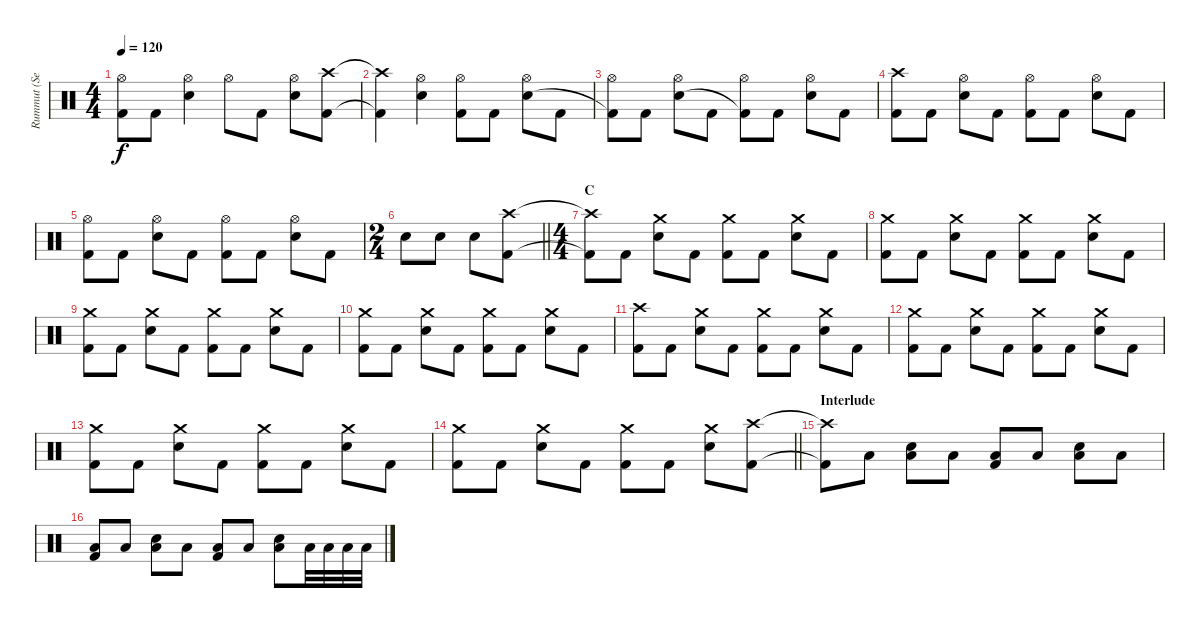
\track ("Rummut (Seppo Pohjolainen)" "Rummut (Se") {instrument percussion}
\staff {score}
\articulation defaults
\ts (4 4)
\tempo 120
\clef neutral
\ks c
("Hi-Hat (open)" "Kick (hit) 2"{t}).8{dy f} "Kick (hit) 2".8 ("Hi-Hat (open)" "Electric Snare (hit)").4 "Hi-Hat (open)".8 "Kick (hit) 2".8 ("Hi-Hat (open)" "Electric Snare (hit)").8 ("Crash high (hit)" "Kick (hit) 2").8 |
("Crash high (hit)"{t} "Kick (hit) 2"{t}).4 ("Hi-Hat (open)" "Electric Snare (hit)").4 ("Hi-Hat (open)" "Kick (hit) 2").8 "Kick (hit) 2".8 ("Hi-Hat (open)" "Electric Snare (hit)").8 "Kick (hit) 2".8 |
("Hi-Hat (open)" "Kick (hit) 2"{t}).8 "Kick (hit) 2".8 ("Hi-Hat (open)" "Electric Snare (hit)").8 "Kick (hit) 2".8 ("Hi-Hat (open)" "Kick (hit) 2"{t}).8 "Kick (hit) 2".8 ("Hi-Hat (open)" "Electric Snare (hit)").8 "Kick (hit) 2".8 |
("Crash high (hit)" "Kick (hit) 2").8 "Kick (hit) 2".8 ("Hi-Hat (open)" "Electric Snare (hit)").8 "Kick (hit) 2".8 ("Hi-Hat (open)" "Kick (hit) 2").8 "Kick (hit) 2".8 ("Hi-Hat (open)" "Electric Snare (hit)").8 "Kick (hit) 2".8 |
("Hi-Hat (open)" "Kick (hit) 2").8 "Kick (hit) 2".8 ("Hi-Hat (open)" "Electric Snare (hit)").8 "Kick (hit) 2".8 ("Hi-Hat (open)" "Kick (hit) 2").8 "Kick (hit) 2".8 ("Hi-Hat (open)" "Electric Snare (hit)").8 "Kick (hit) 2".8 |
\ts (2 4)
\barLineRight lightlight "Electric Snare (hit)".8 "Electric Snare (hit)".8 "Electric Snare (hit)".8
("Crash high (hit)" "Kick (hit) 2").8 |
\ts (4 4)
\section ("" "C")
("Crash high (hit)"{t} "Kick (hit) 2"{t}).8 "Kick (hit) 2".8 ("Crash medium (hit)" "Electric Snare (hit)").8 "Kick (hit) 2".8 ("Crash medium (hit)" "Kick (hit) 2").8 "Kick (hit) 2".8 ("Crash medium (hit)" "Electric Snare (hit)").8 "Kick (hit) 2".8 |
("Crash medium (hit)" "Kick (hit) 2").8 "Kick (hit) 2".8 ("Crash medium (hit)" "Electric Snare (hit)").8 "Kick (hit) 2".8 ("Crash medium (hit)" "Kick (hit) 2").8 "Kick (hit) 2".8 ("Crash medium (hit)" "Electric Snare (hit)").8 "Kick (hit) 2".8 |
("Crash medium (hit)" "Kick (hit) 2").8 "Kick (hit) 2".8 ("Crash medium (hit)" "Electric Snare (hit)").8 "Kick (hit) 2".8 ("Crash medium (hit)" "Kick (hit) 2").8 "Kick (hit) 2".8 ("Crash medium (hit)" "Electric Snare (hit)").8 "Kick (hit) 2".8 |
("Crash medium (hit)" "Kick (hit) 2").8 "Kick (hit) 2".8 ("Crash medium (hit)" "Electric Snare (hit)").8 "Kick (hit) 2".8 ("Crash medium (hit)" "Kick (hit) 2").8 "Kick (hit) 2".8 ("Crash medium (hit)" "Electric Snare (hit)").8 "Kick (hit) 2".8 |
("Crash high (hit)" "Kick (hit) 2").8 "Kick (hit) 2".8 ("Crash medium (hit)" "Electric Snare (hit)").8 "Kick (hit) 2".8 ("Crash medium (hit)" "Kick (hit) 2").8 "Kick (hit) 2".8 ("Crash medium (hit)" "Electric Snare (hit)").8 "Kick (hit) 2".8 |
("Crash medium (hit)" "Kick (hit) 2").8 "Kick (hit) 2".8 ("Crash medium (hit)" "Electric Snare (hit)").8 "Kick (hit) 2".8 ("Crash medium (hit)" "Kick (hit) 2").8 "Kick (hit) 2".8 ("Crash medium (hit)" "Electric Snare (hit)").8 "Kick (hit) 2".8 |
("Crash medium (hit)" "Kick (hit) 2").8 "Kick (hit) 2".8 ("Crash medium (hit)" "Electric Snare (hit)").8 "Kick (hit) 2".8 ("Crash medium (hit)" "Kick (hit) 2").8 "Kick (hit) 2".8 ("Crash medium (hit)" "Electric Snare (hit)").8 "Kick (hit) 2".8 |
\barLineRight lightlight
("Crash medium (hit)" "Kick (hit) 2").8 "Kick (hit) 2".8 ("Crash medium (hit)" "Electric Snare (hit)").8 "Kick (hit) 2".8 ("Crash medium (hit)" "Kick (hit) 2").8 "Kick (hit) 2".8 ("Crash medium (hit)" "Electric Snare (hit)").8 ("Crash high (hit)" "Kick (hit) 2").8 |
\section ("" "Interlude")
("Crash high (hit)"{t} "Kick (hit) 2"{t}).8 "Low Floor Tom (hit)".8 ("Low Floor Tom (hit)" "Electric Snare (hit)").8 "Low Floor Tom (hit)".8 ("Low Floor Tom (hit)" "Kick (hit) 2").8 "Low Floor Tom (hit)".8 ("Low Floor Tom (hit)" "Electric Snare (hit)").8 "Low Floor Tom (hit)".8 |
("Low Floor Tom (hit)" "Kick (hit) 2").8 "Low Floor Tom (hit)".8 ("Low Floor Tom (hit)" "Electric Snare (hit)").8 "Low Floor Tom (hit)".8 ("Low Floor Tom (hit)" "Kick (hit) 2").8 "Low Floor Tom (hit)".8 ("Low Floor Tom (hit)" "Electric Snare (hit)").8 "Low Floor Tom (hit)".32 "Low Floor Tom (hit)".32 "Low Floor Tom (hit)".32 "Low Floor Tom (hit)".32
